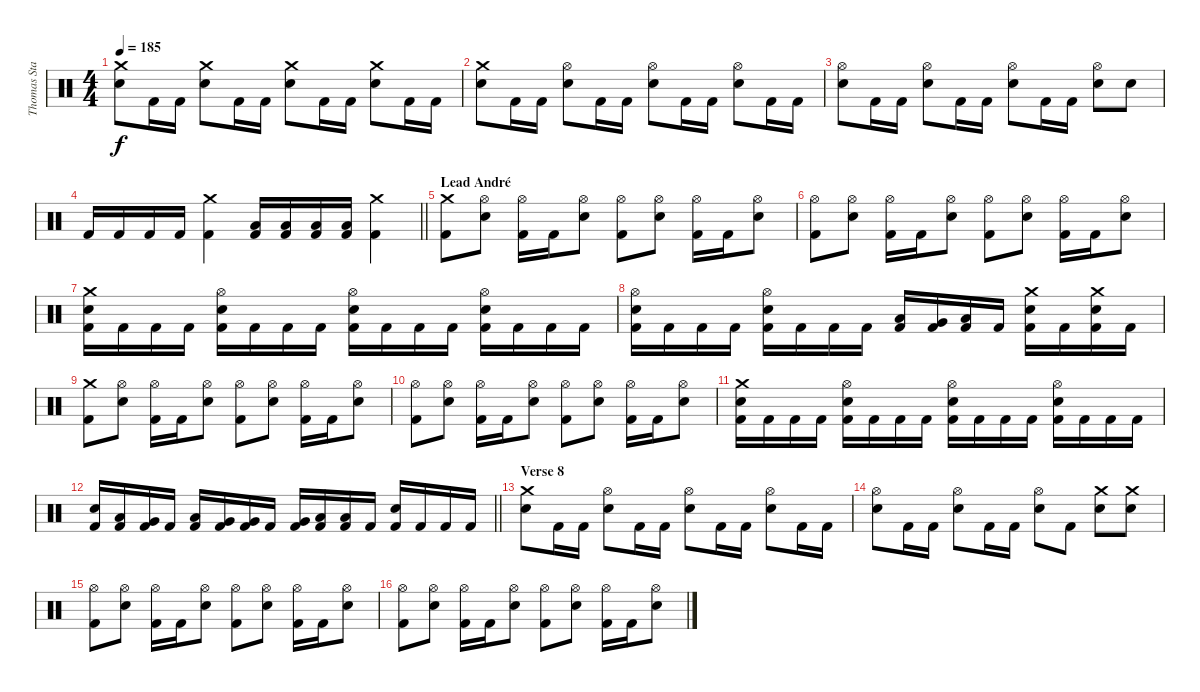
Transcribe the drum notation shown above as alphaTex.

\track ("Thomas Stauch" "Thomas Sta") {instrument percussion}
\staff {score}
\articulation defaults
\ts (4 4)
\tempo 185
\clef neutral
\ks c
("Crash medium (hit)" "Electric Snare (hit)").8{dy f} "Kick (hit) 2".16 "Kick (hit) 2".16 ("Crash medium (hit)" "Electric Snare (hit)").8 "Kick (hit) 2".16 "Kick (hit) 2".16 ("Crash medium (hit)" "Electric Snare (hit)").8 "Kick (hit) 2".16 "Kick (hit) 2".16 ("Crash medium (hit)" "Electric Snare (hit)").8 "Kick (hit) 2".16 "Kick (hit) 2".16 |
("Crash medium (hit)" "Electric Snare (hit)").8 "Kick (hit) 2".16 "Kick (hit) 2".16 ("Hi-Hat (open)" "Electric Snare (hit)").8 "Kick (hit) 2".16 "Kick (hit) 2".16 ("Hi-Hat (open)" "Electric Snare (hit)").8 "Kick (hit) 2".16 "Kick (hit) 2".16 ("Hi-Hat (open)" "Electric Snare (hit)").8 "Kick (hit) 2".16 "Kick (hit) 2".16 |
("Hi-Hat (open)" "Electric Snare (hit)").8 "Kick (hit) 2".16 "Kick (hit) 2".16 ("Hi-Hat (open)" "Electric Snare (hit)").8 "Kick (hit) 2".16 "Kick (hit) 2".16 ("Hi-Hat (open)" "Electric Snare (hit)").8 "Kick (hit) 2".16 "Kick (hit) 2".16 ("Hi-Hat (open)" "Electric Snare (hit)").8 "Electric Snare (hit)".8 |
\barLineRight lightlight "Kick (hit) 2".16 "Kick (hit) 2".16 "Kick (hit) 2".16 "Kick (hit) 2".16
("Crash medium (hit)" "Kick (hit) 2").4 ("Low Tom (hit)" "Kick (hit) 2").16 ("Low Tom (hit)" "Kick (hit) 2").16 ("Low Tom (hit)" "Kick (hit) 2").16 ("Low Tom (hit)" "Kick (hit) 2").16 ("Crash medium (hit)" "Kick (hit) 2").4 |
\section ("" "Lead André")
("Crash medium (hit)" "Kick (hit) 2").8 ("Hi-Hat (open)" "Electric Snare (hit)").8 ("Hi-Hat (open)" "Kick (hit) 2").16 "Kick (hit) 2".16 ("Hi-Hat (open)" "Electric Snare (hit)").8 ("Hi-Hat (open)" "Kick (hit) 2").8 ("Hi-Hat (open)" "Electric Snare (hit)").8 ("Hi-Hat (open)" "Kick (hit) 2").16 "Kick (hit) 2".16 ("Hi-Hat (open)" "Electric Snare (hit)").8 |
("Hi-Hat (open)" "Kick (hit) 2").8 ("Hi-Hat (open)" "Electric Snare (hit)").8 ("Hi-Hat (open)" "Kick (hit) 2").16 "Kick (hit) 2".16 ("Hi-Hat (open)" "Electric Snare (hit)").8 ("Hi-Hat (open)" "Kick (hit) 2").8 ("Hi-Hat (open)" "Electric Snare (hit)").8 ("Hi-Hat (open)" "Kick (hit) 2").16 "Kick (hit) 2".16 ("Hi-Hat (open)" "Electric Snare (hit)").8 |
("Crash medium (hit)" "Electric Snare (hit)" "Kick (hit) 2").16 "Kick (hit) 2".16 "Kick (hit) 2".16 "Kick (hit) 2".16 ("Hi-Hat (open)" "Electric Snare (hit)" "Kick (hit) 2").16 "Kick (hit) 2".16 "Kick (hit) 2".16 "Kick (hit) 2".16 ("Hi-Hat (open)" "Electric Snare (hit)" "Kick (hit) 2").16 "Kick (hit) 2".16 "Kick (hit) 2".16 "Kick (hit) 2".16 ("Hi-Hat (open)" "Electric Snare (hit)" "Kick (hit) 2").16 "Kick (hit) 2".16 "Kick (hit) 2".16 "Kick (hit) 2".16 |
("Hi-Hat (open)" "Electric Snare (hit)" "Kick (hit) 2").16 "Kick (hit) 2".16 "Kick (hit) 2".16 "Kick (hit) 2".16 ("Hi-Hat (open)" "Electric Snare (hit)" "Kick (hit) 2").16 "Kick (hit) 2".16 "Kick (hit) 2".16 "Kick (hit) 2".16 ("Low Tom (hit)" "Kick (hit) 2").16 ("Very Low Tom (hit)" "Kick (hit) 2").16 ("Low Floor Tom (hit)" "Kick (hit) 2").16 "Kick (hit) 2".16 ("Crash medium (hit)" "Electric Snare (hit)" "Kick (hit) 2").16 "Kick (hit) 2".16 ("Crash medium (hit)" "Electric Snare (hit)" "Kick (hit) 2").16 "Kick (hit) 2".16 |
("Crash medium (hit)" "Kick (hit) 2").8 ("Hi-Hat (open)" "Electric Snare (hit)").8 ("Hi-Hat (open)" "Kick (hit) 2").16 "Kick (hit) 2".16 ("Hi-Hat (open)" "Electric Snare (hit)").8 ("Hi-Hat (open)" "Kick (hit) 2").8 ("Hi-Hat (open)" "Electric Snare (hit)").8 ("Hi-Hat (open)" "Kick (hit) 2").16 "Kick (hit) 2".16 ("Hi-Hat (open)" "Electric Snare (hit)").8 |
("Hi-Hat (open)" "Kick (hit) 2").8 ("Hi-Hat (open)" "Electric Snare (hit)").8 ("Hi-Hat (open)" "Kick (hit) 2").16 "Kick (hit) 2".16 ("Hi-Hat (open)" "Electric Snare (hit)").8 ("Hi-Hat (open)" "Kick (hit) 2").8 ("Hi-Hat (open)" "Electric Snare (hit)").8 ("Hi-Hat (open)" "Kick (hit) 2").16 "Kick (hit) 2".16 ("Hi-Hat (open)" "Electric Snare (hit)").8 |
("Crash medium (hit)" "Electric Snare (hit)" "Kick (hit) 2").16 "Kick (hit) 2".16 "Kick (hit) 2".16 "Kick (hit) 2".16 ("Hi-Hat (open)" "Electric Snare (hit)" "Kick (hit) 2").16 "Kick (hit) 2".16 "Kick (hit) 2".16 "Kick (hit) 2".16 ("Hi-Hat (open)" "Electric Snare (hit)" "Kick (hit) 2").16 "Kick (hit) 2".16 "Kick (hit) 2".16 "Kick (hit) 2".16 ("Hi-Hat (open)" "Electric Snare (hit)" "Kick (hit) 2").16 "Kick (hit) 2".16 "Kick (hit) 2".16 "Kick (hit) 2".16 |
\barLineRight lightlight
("Electric Snare (hit)" "Kick (hit) 2").16 ("Low Tom (hit)" "Kick (hit) 2").16 ("Very Low Tom (hit)" "Kick (hit) 2").16 "Kick (hit) 2".16 ("Low Tom (hit)" "Kick (hit) 2").16 ("Very Low Tom (hit)" "Kick (hit) 2").16 ("Very Low Tom (hit)" "Kick (hit) 2").16 "Kick (hit) 2".16 ("Very Low Tom (hit)" "Kick (hit) 2").16 ("Low Floor Tom (hit)" "Kick (hit) 2").16 ("Low Floor Tom (hit)" "Kick (hit) 2").16 "Kick (hit) 2".16 ("Electric Snare (hit)" "Kick (hit) 2").16 "Kick (hit) 2".16 "Kick (hit) 2".16 "Kick (hit) 2".16 |
\section ("" "Verse 8")
("Crash medium (hit)" "Electric Snare (hit)").8 "Kick (hit) 2".16 "Kick (hit) 2".16 ("Hi-Hat (open)" "Electric Snare (hit)").8 "Kick (hit) 2".16 "Kick (hit) 2".16 ("Hi-Hat (open)" "Electric Snare (hit)").8 "Kick (hit) 2".16 "Kick (hit) 2".16 ("Hi-Hat (open)" "Electric Snare (hit)").8 "Kick (hit) 2".16 "Kick (hit) 2".16 |
("Hi-Hat (open)" "Electric Snare (hit)").8 "Kick (hit) 2".16 "Kick (hit) 2".16 ("Hi-Hat (open)" "Electric Snare (hit)").8 "Kick (hit) 2".16 "Kick (hit) 2".16 ("Hi-Hat (open)" "Electric Snare (hit)").8 "Kick (hit) 2".8 ("Crash medium (hit)" "Electric Snare (hit)").8 ("Crash medium (hit)" "Electric Snare (hit)").8 |
("Hi-Hat (open)" "Kick (hit) 2").8 ("Hi-Hat (open)" "Electric Snare (hit)").8 ("Hi-Hat (open)" "Kick (hit) 2").16 "Kick (hit) 2".16 ("Hi-Hat (open)" "Electric Snare (hit)").8 ("Hi-Hat (open)" "Kick (hit) 2").8 ("Hi-Hat (open)" "Electric Snare (hit)").8 ("Hi-Hat (open)" "Kick (hit) 2").16 "Kick (hit) 2".16 ("Hi-Hat (open)" "Electric Snare (hit)").8 |
("Hi-Hat (open)" "Kick (hit) 2").8 ("Hi-Hat (open)" "Electric Snare (hit)").8 ("Hi-Hat (open)" "Kick (hit) 2").16 "Kick (hit) 2".16 ("Hi-Hat (open)" "Electric Snare (hit)").8 ("Hi-Hat (open)" "Kick (hit) 2").8 ("Hi-Hat (open)" "Electric Snare (hit)").8 ("Hi-Hat (open)" "Kick (hit) 2").16 "Kick (hit) 2".16 ("Hi-Hat (open)" "Electric Snare (hit)").8
